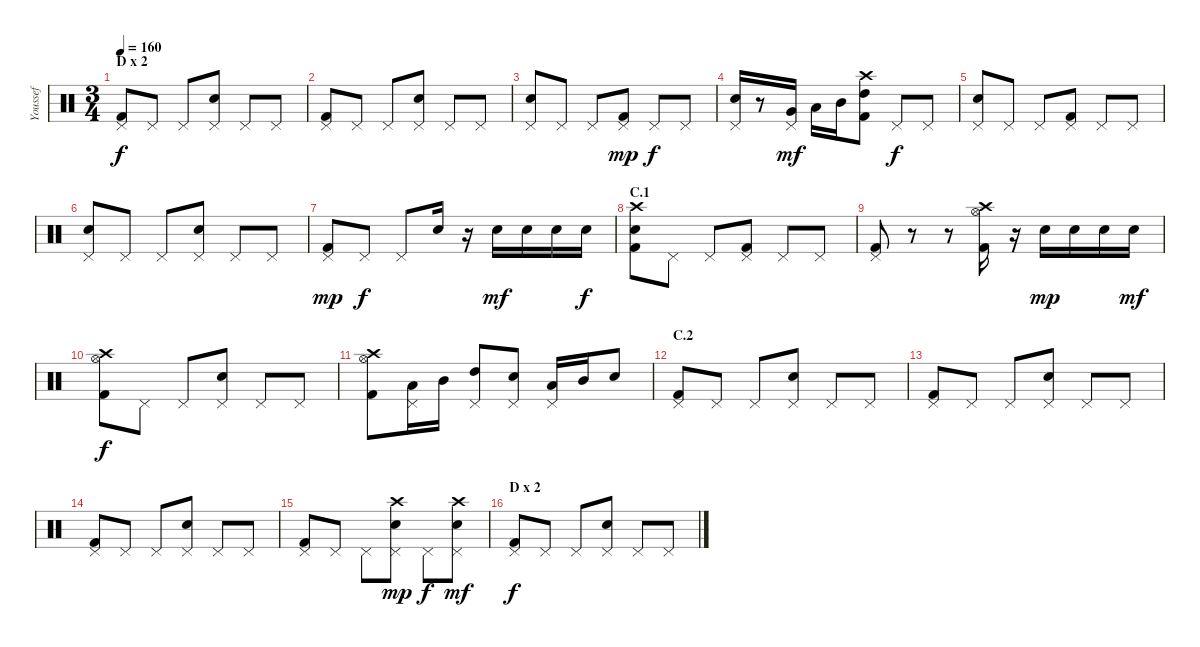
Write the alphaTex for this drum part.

\track ("Youssef" "Youssef") {instrument percussion}
\staff {score}
\articulation defaults
\ts (3 4)
\section ("" "D x 2")
\tempo 160
\clef neutral
\ks c
("Kick (hit) 2" "Pedal Hi-Hat (hit)").8{dy f} "Pedal Hi-Hat (hit)".8 "Pedal Hi-Hat (hit)".8 ("Electric Snare (hit)" "Pedal Hi-Hat (hit)").8 "Pedal Hi-Hat (hit)".8 "Pedal Hi-Hat (hit)".8 |
("Kick (hit) 2" "Pedal Hi-Hat (hit)").8 "Pedal Hi-Hat (hit)".8 "Pedal Hi-Hat (hit)".8 ("Electric Snare (hit)" "Pedal Hi-Hat (hit)").8 "Pedal Hi-Hat (hit)".8 "Pedal Hi-Hat (hit)".8 |
("Electric Snare (hit)" "Pedal Hi-Hat (hit)").8 "Pedal Hi-Hat (hit)".8 "Pedal Hi-Hat (hit)".8 ("Kick (hit) 2" "Pedal Hi-Hat (hit)").8{dy mp} "Pedal Hi-Hat (hit)".8{dy f} "Pedal Hi-Hat (hit)".8 |
("Electric Snare (hit)" "Pedal Hi-Hat (hit)").16 r.8 ("Very Low Tom (hit)" "Pedal Hi-Hat (hit)").16{dy mf} "Low Tom (hit)".16 "Mid Tom (hit)".16 ("Kick (hit) 2" "High Tom (hit)" "Crash high (hit)").8 "Pedal Hi-Hat (hit)".8{dy f} "Pedal Hi-Hat (hit)".8 |
("Electric Snare (hit)" "Pedal Hi-Hat (hit)").8 "Pedal Hi-Hat (hit)".8 "Pedal Hi-Hat (hit)".8 ("Kick (hit) 2" "Pedal Hi-Hat (hit)").8 "Pedal Hi-Hat (hit)".8 "Pedal Hi-Hat (hit)".8 |
("Electric Snare (hit)" "Pedal Hi-Hat (hit)").8 "Pedal Hi-Hat (hit)".8 "Pedal Hi-Hat (hit)".8 ("Electric Snare (hit)" "Pedal Hi-Hat (hit)").8 "Pedal Hi-Hat (hit)".8 "Pedal Hi-Hat (hit)".8 |
("Kick (hit) 2" "Pedal Hi-Hat (hit)").8{dy mp} "Pedal Hi-Hat (hit)".8{dy f} "Pedal Hi-Hat (hit)".8 "Electric Snare (hit)".16 r.16 "Electric Snare (hit)".16{dy mf} "Electric Snare (hit)".16 "Electric Snare (hit)".16 "Electric Snare (hit)".16{dy f} |
\section ("" "C.1")
("Kick (hit) 2" "Electric Snare (hit)" "Crash high (hit)").8 "Pedal Hi-Hat (hit)".8 "Pedal Hi-Hat (hit)".8 ("Kick (hit) 2" "Pedal Hi-Hat (hit)").8 "Pedal Hi-Hat (hit)".8 "Pedal Hi-Hat (hit)".8 |
("Kick (hit) 2" "Pedal Hi-Hat (hit)").8 r.8 r.8 ("Kick (hit) 2" "Hi-Hat (open)" "Crash high (hit)").16 r.16 "Electric Snare (hit)".16{dy mp} "Electric Snare (hit)".16 "Electric Snare (hit)".16 "Electric Snare (hit)".16{dy mf} |
("Kick (hit) 2" "Hi-Hat (open)" "Crash high (hit)").8{dy f} "Pedal Hi-Hat (hit)".8 "Pedal Hi-Hat (hit)".8 ("Electric Snare (hit)" "Pedal Hi-Hat (hit)").8 "Pedal Hi-Hat (hit)".8 "Pedal Hi-Hat (hit)".8 |
("Kick (hit) 2" "Hi-Hat (open)" "Crash high (hit)").8 ("Low Tom (hit)" "Pedal Hi-Hat (hit)").16 "Mid Tom (hit)".16 ("High Tom (hit)" "Pedal Hi-Hat (hit)").8 ("Electric Snare (hit)" "Pedal Hi-Hat (hit)").8 ("Low Tom (hit)" "Pedal Hi-Hat (hit)").16 "Mid Tom (hit)".16 "Electric Snare (hit)".8 |
\section ("" "C.2")
("Kick (hit) 2" "Pedal Hi-Hat (hit)").8 "Pedal Hi-Hat (hit)".8 "Pedal Hi-Hat (hit)".8 ("Electric Snare (hit)" "Pedal Hi-Hat (hit)").8 "Pedal Hi-Hat (hit)".8 "Pedal Hi-Hat (hit)".8 |
("Kick (hit) 2" "Pedal Hi-Hat (hit)").8 "Pedal Hi-Hat (hit)".8 "Pedal Hi-Hat (hit)".8 ("Electric Snare (hit)" "Pedal Hi-Hat (hit)").8 "Pedal Hi-Hat (hit)".8 "Pedal Hi-Hat (hit)".8 |
("Kick (hit) 2" "Pedal Hi-Hat (hit)").8 "Pedal Hi-Hat (hit)".8 "Pedal Hi-Hat (hit)".8 ("Electric Snare (hit)" "Pedal Hi-Hat (hit)").8 "Pedal Hi-Hat (hit)".8 "Pedal Hi-Hat (hit)".8 |
("Kick (hit) 2" "Pedal Hi-Hat (hit)").8 "Pedal Hi-Hat (hit)".8 "Pedal Hi-Hat (hit)".8 ("Crash high (hit)" "Electric Snare (hit)" "Pedal Hi-Hat (hit)").8{dy mp} "Pedal Hi-Hat (hit)".8{dy f} ("Crash high (hit)" "Electric Snare (hit)" "Pedal Hi-Hat (hit)").8{dy mf} |
\section ("" "D x 2")
("Kick (hit) 2" "Pedal Hi-Hat (hit)").8{dy f} "Pedal Hi-Hat (hit)".8 "Pedal Hi-Hat (hit)".8 ("Electric Snare (hit)" "Pedal Hi-Hat (hit)").8 "Pedal Hi-Hat (hit)".8 "Pedal Hi-Hat (hit)".8
